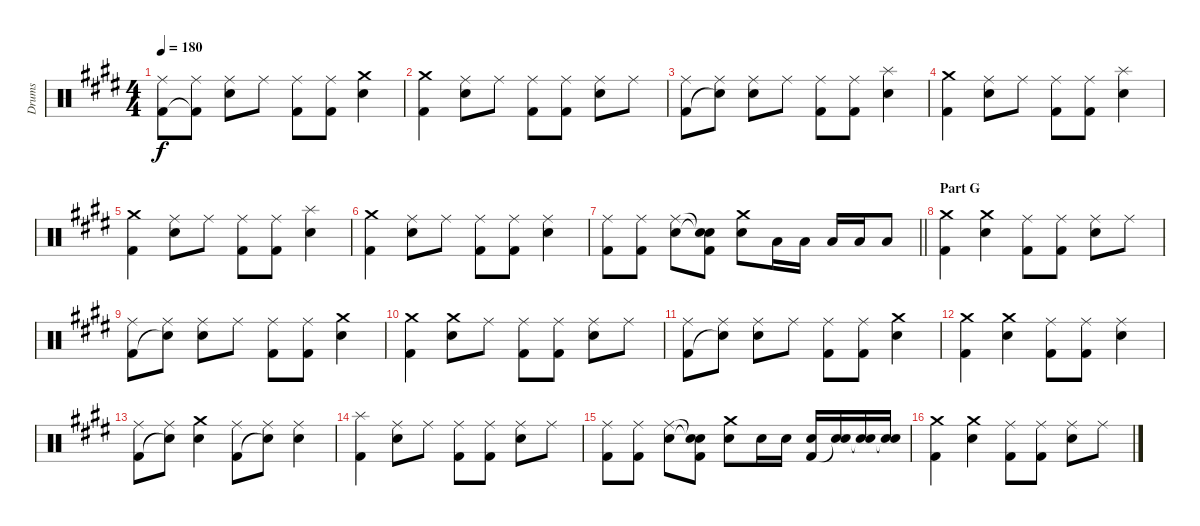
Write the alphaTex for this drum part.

\track ("Drums" "Drums") {instrument percussion}
\staff {score}
\articulation defaults
\ts (4 4)
\tempo 180
\clef neutral
\ks e
("Ride (middle)" "Kick (hit) 2").8{dy f} ("Ride (middle)" "Kick (hit) 2"{t}).8 ("Ride (middle)" "Electric Snare (hit)").8 "Ride (middle)".8 ("Ride (middle)" "Kick (hit) 2").8 ("Ride (middle)" "Kick (hit) 2").8 ("Crash medium (hit)" "Electric Snare (hit)").4 |
("Crash medium (hit)" "Kick (hit) 2").4 ("Ride (middle)" "Electric Snare (hit)").8 "Ride (middle)".8 ("Ride (middle)" "Kick (hit) 2").8 ("Ride (middle)" "Kick (hit) 2").8 ("Ride (middle)" "Electric Snare (hit)").8 "Ride (middle)".8 |
("Ride (middle)" "Kick (hit) 2").8 ("Ride (middle)" "Snare (hit)"{t}).8 ("Ride (middle)" "Electric Snare (hit)").8 "Ride (middle)".8 ("Ride (middle)" "Kick (hit) 2").8 ("Ride (middle)" "Kick (hit) 2").8 ("Splash (hit)" "Electric Snare (hit)").4 |
("Crash medium (hit)" "Kick (hit) 2").4 ("Ride (middle)" "Electric Snare (hit)").8 "Ride (middle)".8 ("Ride (middle)" "Kick (hit) 2").8 ("Ride (middle)" "Kick (hit) 2").8 ("Splash (hit)" "Electric Snare (hit)").4 |
("Crash medium (hit)" "Kick (hit) 2").4 ("Ride (middle)" "Electric Snare (hit)").8 "Ride (middle)".8 ("Ride (middle)" "Kick (hit) 2").8 ("Ride (middle)" "Kick (hit) 2").8 ("Splash (hit)" "Electric Snare (hit)").4 |
("Crash medium (hit)" "Kick (hit) 2").4 ("Ride (middle)" "Electric Snare (hit)").8 "Ride (middle)".8 ("Ride (middle)" "Kick (hit) 2").8 ("Ride (middle)" "Kick (hit) 2").8 ("Ride (middle)" "Electric Snare (hit)").4 |
\barLineRight lightlight
("Ride (middle)" "Kick (hit) 2").8 ("Ride (middle)" "Kick (hit) 2").8 ("Ride (middle)" "Electric Snare (hit)").8 ("Snare (hit)"{t} "Snare (hit)"{t} "Kick (hit) 2").8 ("Crash medium (hit)" "Electric Snare (hit)").8 "Low Tom (hit)".16 "Low Tom (hit)".16 "Low Tom (hit)".16 "Low Tom (hit)".16 "Low Tom (hit)".8 |
\section ("" "Part G")
("Crash medium (hit)" "Kick (hit) 2").4 ("Crash medium (hit)" "Electric Snare (hit)").4 ("Ride (middle)" "Kick (hit) 2").8 ("Ride (middle)" "Kick (hit) 2").8 ("Ride (middle)" "Electric Snare (hit)").8 "Ride (middle)".8 |
("Ride (middle)" "Kick (hit) 2").8 ("Ride (middle)" "Snare (hit)"{t}).8 ("Ride (middle)" "Electric Snare (hit)").8 "Ride (middle)".8 ("Ride (middle)" "Kick (hit) 2").8 ("Ride (middle)" "Kick (hit) 2").8 ("Crash medium (hit)" "Electric Snare (hit)").4 |
("Crash medium (hit)" "Kick (hit) 2").4 ("Crash medium (hit)" "Electric Snare (hit)").8 "Ride (middle)".8 ("Ride (middle)" "Kick (hit) 2").8 ("Ride (middle)" "Kick (hit) 2").8 ("Ride (middle)" "Electric Snare (hit)").8 "Ride (middle)".8 |
("Ride (middle)" "Kick (hit) 2").8 ("Ride (middle)" "Snare (hit)"{t}).8 ("Ride (middle)" "Electric Snare (hit)").8 "Ride (middle)".8 ("Ride (middle)" "Kick (hit) 2").8 ("Ride (middle)" "Kick (hit) 2").8 ("Crash medium (hit)" "Electric Snare (hit)").4 |
("Crash medium (hit)" "Kick (hit) 2").4 ("Crash medium (hit)" "Electric Snare (hit)").4 ("Ride (middle)" "Kick (hit) 2").8 ("Ride (middle)" "Kick (hit) 2").8 ("Ride (middle)" "Electric Snare (hit)").4 |
("Ride (middle)" "Kick (hit) 2").8 ("Ride (middle)" "Snare (hit)"{t}).8 ("Crash medium (hit)" "Electric Snare (hit)").4 ("Ride (middle)" "Kick (hit) 2").8 ("Ride (middle)" "Snare (hit)"{t}).8 ("Ride (middle)" "Electric Snare (hit)").4 |
("Splash (hit)" "Kick (hit) 2").4 ("Ride (middle)" "Electric Snare (hit)").8 "Ride (middle)".8 ("Ride (middle)" "Kick (hit) 2").8 ("Ride (middle)" "Kick (hit) 2").8 ("Ride (middle)" "Electric Snare (hit)").8 "Ride (middle)".8 |
("Ride (middle)" "Kick (hit) 2").8 ("Ride (middle)" "Kick (hit) 2").8 ("Ride (middle)" "Electric Snare (hit)").8 ("Snare (hit)"{t} "Snare (hit)"{t} "Kick (hit) 2").8 ("Crash medium (hit)" "Electric Snare (hit)").8 "Electric Snare (hit)".16 "Electric Snare (hit)".16 ("Electric Snare (hit)" "Kick (hit) 2").16 ("Electric Snare (hit)" "Snare (hit)"{t}).16 ("Electric Snare (hit)" "Snare (hit)"{t}).16 ("Electric Snare (hit)" "Snare (hit)"{t}).16 |
("Crash medium (hit)" "Kick (hit) 2").4 ("Crash medium (hit)" "Electric Snare (hit)").4 ("Ride (middle)" "Kick (hit) 2").8 ("Ride (middle)" "Kick (hit) 2").8 ("Ride (middle)" "Electric Snare (hit)").8 "Ride (middle)".8
